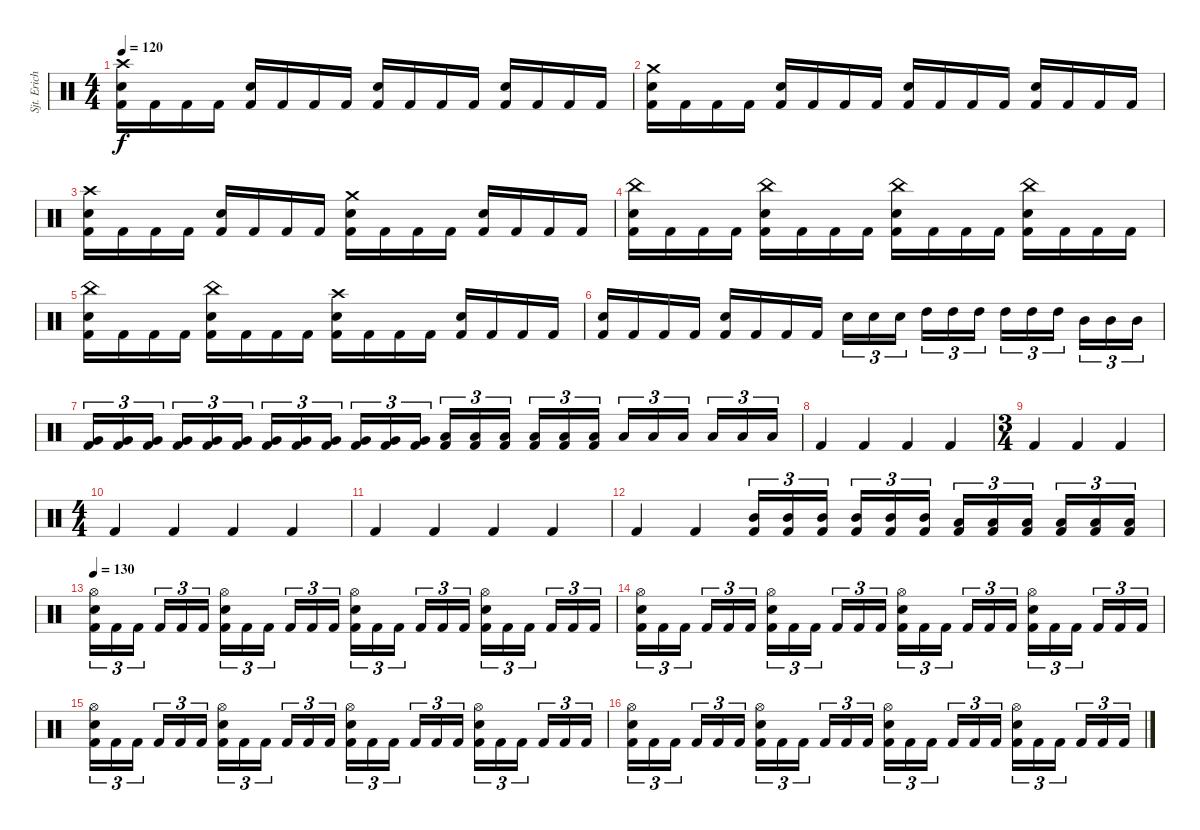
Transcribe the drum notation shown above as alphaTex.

\track ("Sjt. Erichsen" "Sjt. Erich") {instrument percussion}
\staff {score}
\articulation defaults
\ts (4 4)
\tempo 120
\clef neutral
\ks c
("Crash high (hit)" "Electric Snare (hit)" "Kick (hit) 2").16{dy f} "Kick (hit) 2".16 "Kick (hit) 2".16 "Kick (hit) 2".16 ("Electric Snare (hit)" "Kick (hit) 2").16 "Kick (hit) 2".16 "Kick (hit) 2".16 "Kick (hit) 2".16 ("Electric Snare (hit)" "Kick (hit) 2").16 "Kick (hit) 2".16 "Kick (hit) 2".16 "Kick (hit) 2".16 ("Electric Snare (hit)" "Kick (hit) 2").16 "Kick (hit) 2".16 "Kick (hit) 2".16 "Kick (hit) 2".16 |
("Crash medium (hit)" "Electric Snare (hit)" "Kick (hit) 2").16 "Kick (hit) 2".16 "Kick (hit) 2".16 "Kick (hit) 2".16 ("Electric Snare (hit)" "Kick (hit) 2").16 "Kick (hit) 2".16 "Kick (hit) 2".16 "Kick (hit) 2".16 ("Electric Snare (hit)" "Kick (hit) 2").16 "Kick (hit) 2".16 "Kick (hit) 2".16 "Kick (hit) 2".16 ("Electric Snare (hit)" "Kick (hit) 2").16 "Kick (hit) 2".16 "Kick (hit) 2".16 "Kick (hit) 2".16 |
("Crash high (hit)" "Electric Snare (hit)" "Kick (hit) 2").16 "Kick (hit) 2".16 "Kick (hit) 2".16 "Kick (hit) 2".16 ("Electric Snare (hit)" "Kick (hit) 2").16 "Kick (hit) 2".16 "Kick (hit) 2".16 "Kick (hit) 2".16 ("Crash medium (hit)" "Electric Snare (hit)" "Kick (hit) 2").16 "Kick (hit) 2".16 "Kick (hit) 2".16 "Kick (hit) 2".16 ("Electric Snare (hit)" "Kick (hit) 2").16 "Kick (hit) 2".16 "Kick (hit) 2".16 "Kick (hit) 2".16 |
("China (hit)" "Electric Snare (hit)" "Kick (hit) 2").16 "Kick (hit) 2".16 "Kick (hit) 2".16 "Kick (hit) 2".16 ("China (hit)" "Electric Snare (hit)" "Kick (hit) 2").16 "Kick (hit) 2".16 "Kick (hit) 2".16 "Kick (hit) 2".16 ("China (hit)" "Electric Snare (hit)" "Kick (hit) 2").16 "Kick (hit) 2".16 "Kick (hit) 2".16 "Kick (hit) 2".16 ("China (hit)" "Electric Snare (hit)" "Kick (hit) 2").16 "Kick (hit) 2".16 "Kick (hit) 2".16 "Kick (hit) 2".16 |
("China (hit)" "Electric Snare (hit)" "Kick (hit) 2").16 "Kick (hit) 2".16 "Kick (hit) 2".16 "Kick (hit) 2".16 ("China (hit)" "Electric Snare (hit)" "Kick (hit) 2").16 "Kick (hit) 2".16 "Kick (hit) 2".16 "Kick (hit) 2".16 ("Crash high (hit)" "Electric Snare (hit)" "Kick (hit) 2").16 "Kick (hit) 2".16 "Kick (hit) 2".16 "Kick (hit) 2".16 ("Electric Snare (hit)" "Kick (hit) 2").16 "Kick (hit) 2".16 "Kick (hit) 2".16 "Kick (hit) 2".16 |
("Electric Snare (hit)" "Kick (hit) 2").16 "Kick (hit) 2".16 "Kick (hit) 2".16 "Kick (hit) 2".16 ("Electric Snare (hit)" "Kick (hit) 2").16 "Kick (hit) 2".16 "Kick (hit) 2".16 "Kick (hit) 2".16 "Electric Snare (hit)".16{tu (3 2)} "Electric Snare (hit)".16{tu (3 2)} "Electric Snare (hit)".16{tu (3 2)} "High Tom (hit)".16{tu (3 2)} "High Tom (hit)".16{tu (3 2)} "High Tom (hit)".16{tu (3 2)} "High Tom (hit)".16{tu (3 2)} "High Tom (hit)".16{tu (3 2)} "High Tom (hit)".16{tu (3 2)} "Mid Tom (hit)".16{tu (3 2)} "Mid Tom (hit)".16{tu (3 2)} "Mid Tom (hit)".16{tu (3 2)} |
("Very Low Tom (hit)" "Kick (hit) 2").16{tu (3 2)} ("Very Low Tom (hit)" "Kick (hit) 2").16{tu (3 2)} ("Very Low Tom (hit)" "Kick (hit) 2").16{tu (3 2)} ("Very Low Tom (hit)" "Kick (hit) 2").16{tu (3 2)} ("Very Low Tom (hit)" "Kick (hit) 2").16{tu (3 2)} ("Very Low Tom (hit)" "Kick (hit) 2").16{tu (3 2)} ("Very Low Tom (hit)" "Kick (hit) 2").16{tu (3 2)} ("Very Low Tom (hit)" "Kick (hit) 2").16{tu (3 2)} ("Very Low Tom (hit)" "Kick (hit) 2").16{tu (3 2)} ("Very Low Tom (hit)" "Kick (hit) 2").16{tu (3 2)} ("Very Low Tom (hit)" "Kick (hit) 2").16{tu (3 2)} ("Very Low Tom (hit)" "Kick (hit) 2").16{tu (3 2)} ("Low Floor Tom (hit)" "Kick (hit) 2").16{tu (3 2)} ("Low Floor Tom (hit)" "Kick (hit) 2").16{tu (3 2)} ("Low Floor Tom (hit)" "Kick (hit) 2").16{tu (3 2)} ("Low Floor Tom (hit)" "Kick (hit) 2").16{tu (3 2)} ("Low Floor Tom (hit)" "Kick (hit) 2").16{tu (3 2)} ("Low Floor Tom (hit)" "Kick (hit) 2").16{tu (3 2)} "Low Tom (hit)".16{tu (3 2)} "Low Tom (hit)".16{tu (3 2)} "Low Tom (hit)".16{tu (3 2)} "Low Tom (hit)".16{tu (3 2)} "Low Tom (hit)".16{tu (3 2)} "Low Tom (hit)".16{tu (3 2)} |
"Kick (hit) 2".4 "Kick (hit) 2".4 "Kick (hit) 2".4 "Kick (hit) 2".4 |
\ts (3 4)
"Kick (hit) 2".4 "Kick (hit) 2".4 "Kick (hit) 2".4 |
\ts (4 4)
"Kick (hit) 2".4 "Kick (hit) 2".4 "Kick (hit) 2".4 "Kick (hit) 2".4 |
"Kick (hit) 2".4 "Kick (hit) 2".4 "Kick (hit) 2".4 "Kick (hit) 2".4 |
"Kick (hit) 2".4 "Kick (hit) 2".4 ("Mid Tom (hit)" "Kick (hit) 2").16{tu (3 2)} ("Mid Tom (hit)" "Kick (hit) 2").16{tu (3 2)} ("Mid Tom (hit)" "Kick (hit) 2").16{tu (3 2)} ("Mid Tom (hit)" "Kick (hit) 2").16{tu (3 2)} ("Mid Tom (hit)" "Kick (hit) 2").16{tu (3 2)} ("Mid Tom (hit)" "Kick (hit) 2").16{tu (3 2)} ("Low Tom (hit)" "Kick (hit) 2").16{tu (3 2)} ("Low Tom (hit)" "Kick (hit) 2").16{tu (3 2)} ("Low Tom (hit)" "Kick (hit) 2").16{tu (3 2)} ("Low Tom (hit)" "Kick (hit) 2").16{tu (3 2)} ("Low Tom (hit)" "Kick (hit) 2").16{tu (3 2)} ("Low Tom (hit)" "Kick (hit) 2").16{tu (3 2)} |
\tempo 130
("Hi-Hat (open)" "Electric Snare (hit)" "Kick (hit) 2").16{tu (3 2)} "Kick (hit) 2".16{tu (3 2)} "Kick (hit) 2".16{tu (3 2)} "Kick (hit) 2".16{tu (3 2)} "Kick (hit) 2".16{tu (3 2)} "Kick (hit) 2".16{tu (3 2)} ("Hi-Hat (open)" "Electric Snare (hit)" "Kick (hit) 2").16{tu (3 2)} "Kick (hit) 2".16{tu (3 2)} "Kick (hit) 2".16{tu (3 2)} "Kick (hit) 2".16{tu (3 2)} "Kick (hit) 2".16{tu (3 2)} "Kick (hit) 2".16{tu (3 2)} ("Hi-Hat (open)" "Electric Snare (hit)" "Kick (hit) 2").16{tu (3 2)} "Kick (hit) 2".16{tu (3 2)} "Kick (hit) 2".16{tu (3 2)} "Kick (hit) 2".16{tu (3 2)} "Kick (hit) 2".16{tu (3 2)} "Kick (hit) 2".16{tu (3 2)} ("Hi-Hat (open)" "Electric Snare (hit)" "Kick (hit) 2").16{tu (3 2)} "Kick (hit) 2".16{tu (3 2)} "Kick (hit) 2".16{tu (3 2)} "Kick (hit) 2".16{tu (3 2)} "Kick (hit) 2".16{tu (3 2)} "Kick (hit) 2".16{tu (3 2)} |
("Hi-Hat (open)" "Electric Snare (hit)" "Kick (hit) 2").16{tu (3 2)} "Kick (hit) 2".16{tu (3 2)} "Kick (hit) 2".16{tu (3 2)} "Kick (hit) 2".16{tu (3 2)} "Kick (hit) 2".16{tu (3 2)} "Kick (hit) 2".16{tu (3 2)} ("Hi-Hat (open)" "Electric Snare (hit)" "Kick (hit) 2").16{tu (3 2)} "Kick (hit) 2".16{tu (3 2)} "Kick (hit) 2".16{tu (3 2)} "Kick (hit) 2".16{tu (3 2)} "Kick (hit) 2".16{tu (3 2)} "Kick (hit) 2".16{tu (3 2)} ("Hi-Hat (open)" "Electric Snare (hit)" "Kick (hit) 2").16{tu (3 2)} "Kick (hit) 2".16{tu (3 2)} "Kick (hit) 2".16{tu (3 2)} "Kick (hit) 2".16{tu (3 2)} "Kick (hit) 2".16{tu (3 2)} "Kick (hit) 2".16{tu (3 2)} ("Hi-Hat (open)" "Electric Snare (hit)" "Kick (hit) 2").16{tu (3 2)} "Kick (hit) 2".16{tu (3 2)} "Kick (hit) 2".16{tu (3 2)} "Kick (hit) 2".16{tu (3 2)} "Kick (hit) 2".16{tu (3 2)} "Kick (hit) 2".16{tu (3 2)} |
("Hi-Hat (open)" "Electric Snare (hit)" "Kick (hit) 2").16{tu (3 2)} "Kick (hit) 2".16{tu (3 2)} "Kick (hit) 2".16{tu (3 2)} "Kick (hit) 2".16{tu (3 2)} "Kick (hit) 2".16{tu (3 2)} "Kick (hit) 2".16{tu (3 2)} ("Hi-Hat (open)" "Electric Snare (hit)" "Kick (hit) 2").16{tu (3 2)} "Kick (hit) 2".16{tu (3 2)} "Kick (hit) 2".16{tu (3 2)} "Kick (hit) 2".16{tu (3 2)} "Kick (hit) 2".16{tu (3 2)} "Kick (hit) 2".16{tu (3 2)} ("Hi-Hat (open)" "Electric Snare (hit)" "Kick (hit) 2").16{tu (3 2)} "Kick (hit) 2".16{tu (3 2)} "Kick (hit) 2".16{tu (3 2)} "Kick (hit) 2".16{tu (3 2)} "Kick (hit) 2".16{tu (3 2)} "Kick (hit) 2".16{tu (3 2)} ("Hi-Hat (open)" "Electric Snare (hit)" "Kick (hit) 2").16{tu (3 2)} "Kick (hit) 2".16{tu (3 2)} "Kick (hit) 2".16{tu (3 2)} "Kick (hit) 2".16{tu (3 2)} "Kick (hit) 2".16{tu (3 2)} "Kick (hit) 2".16{tu (3 2)} |
("Hi-Hat (open)" "Electric Snare (hit)" "Kick (hit) 2").16{tu (3 2)} "Kick (hit) 2".16{tu (3 2)} "Kick (hit) 2".16{tu (3 2)} "Kick (hit) 2".16{tu (3 2)} "Kick (hit) 2".16{tu (3 2)} "Kick (hit) 2".16{tu (3 2)} ("Hi-Hat (open)" "Electric Snare (hit)" "Kick (hit) 2").16{tu (3 2)} "Kick (hit) 2".16{tu (3 2)} "Kick (hit) 2".16{tu (3 2)} "Kick (hit) 2".16{tu (3 2)} "Kick (hit) 2".16{tu (3 2)} "Kick (hit) 2".16{tu (3 2)} ("Hi-Hat (open)" "Electric Snare (hit)" "Kick (hit) 2").16{tu (3 2)} "Kick (hit) 2".16{tu (3 2)} "Kick (hit) 2".16{tu (3 2)} "Kick (hit) 2".16{tu (3 2)} "Kick (hit) 2".16{tu (3 2)} "Kick (hit) 2".16{tu (3 2)} ("Hi-Hat (open)" "Electric Snare (hit)" "Kick (hit) 2").16{tu (3 2)} "Kick (hit) 2".16{tu (3 2)} "Kick (hit) 2".16{tu (3 2)} "Kick (hit) 2".16{tu (3 2)} "Kick (hit) 2".16{tu (3 2)} "Kick (hit) 2".16{tu (3 2)}
